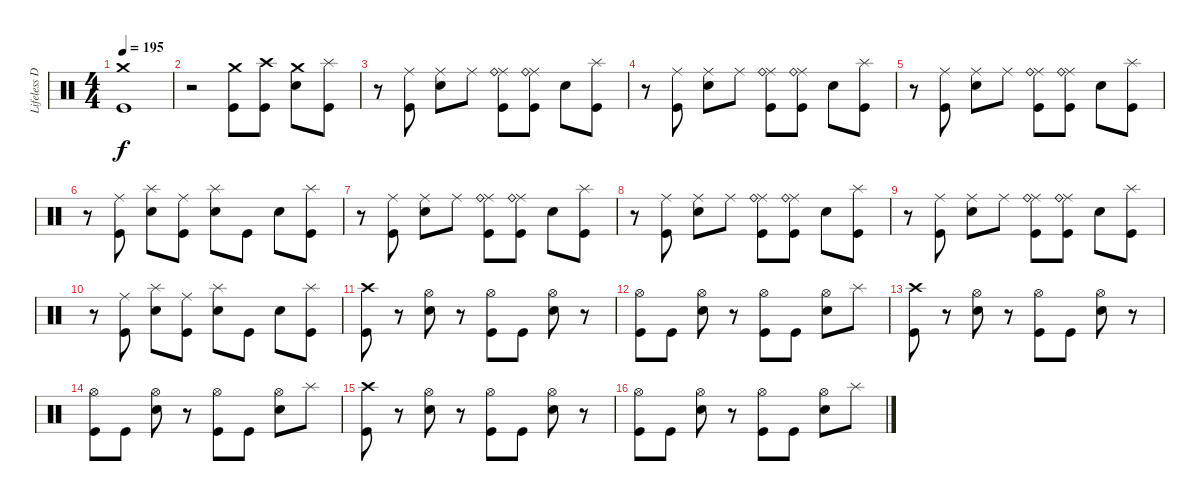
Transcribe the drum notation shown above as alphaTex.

\track ("Lifeless Drums" "Lifeless D") {instrument percussion}
\staff {score}
\articulation defaults
\ts (4 4)
\tempo 195
\clef neutral
\ks c
("Crash medium (hit)" "Kick (hit)").1{dy f} |
r.2 ("Crash medium (hit)" "Kick (hit)").8 ("Crash high (hit)" "Kick (hit)").8 ("Crash medium (hit)" "Electric Snare (hit)").8 ("Splash (hit)" "Kick (hit)").8 |
r.8 ("Ride (middle)" "Kick (hit)").8 ("Ride (middle)" "Electric Snare (hit)").8 "Ride (middle)".8 ("Ride (middle)" "Ride (bell)" "Kick (hit)").8 ("Ride (middle)" "Ride (bell)" "Kick (hit)").8 "Electric Snare (hit)".8 ("Splash (hit)" "Kick (hit)").8 |
r.8 ("Ride (middle)" "Kick (hit)").8 ("Ride (middle)" "Electric Snare (hit)").8 "Ride (middle)".8 ("Ride (middle)" "Ride (bell)" "Kick (hit)").8 ("Ride (middle)" "Ride (bell)" "Kick (hit)").8 "Electric Snare (hit)".8 ("Splash (hit)" "Kick (hit)").8 |
r.8 ("Ride (middle)" "Kick (hit)").8 ("Ride (middle)" "Electric Snare (hit)").8 "Ride (middle)".8 ("Ride (middle)" "Ride (bell)" "Kick (hit)").8 ("Ride (middle)" "Ride (bell)" "Kick (hit)").8 "Electric Snare (hit)".8 ("Splash (hit)" "Kick (hit)").8 |
r.8 ("Ride (middle)" "Kick (hit)").8 ("Splash (hit)" "Electric Snare (hit)").8 ("Ride (middle)" "Kick (hit)").8 ("Splash (hit)" "Electric Snare (hit)").8 "Kick (hit)".8 "Electric Snare (hit)".8 ("Splash (hit)" "Kick (hit)").8 |
r.8 ("Ride (middle)" "Kick (hit)").8 ("Ride (middle)" "Electric Snare (hit)").8 "Ride (middle)".8 ("Ride (middle)" "Ride (bell)" "Kick (hit)").8 ("Ride (middle)" "Ride (bell)" "Kick (hit)").8 "Electric Snare (hit)".8 ("Splash (hit)" "Kick (hit)").8 |
r.8 ("Ride (middle)" "Kick (hit)").8 ("Ride (middle)" "Electric Snare (hit)").8 "Ride (middle)".8 ("Ride (middle)" "Ride (bell)" "Kick (hit)").8 ("Ride (middle)" "Ride (bell)" "Kick (hit)").8 "Electric Snare (hit)".8 ("Splash (hit)" "Kick (hit)").8 |
r.8 ("Ride (middle)" "Kick (hit)").8 ("Ride (middle)" "Electric Snare (hit)").8 "Ride (middle)".8 ("Ride (middle)" "Ride (bell)" "Kick (hit)").8 ("Ride (middle)" "Ride (bell)" "Kick (hit)").8 "Electric Snare (hit)".8 ("Splash (hit)" "Kick (hit)").8 |
r.8 ("Ride (middle)" "Kick (hit)").8 ("Splash (hit)" "Electric Snare (hit)").8 ("Ride (middle)" "Kick (hit)").8 ("Splash (hit)" "Electric Snare (hit)").8 "Kick (hit)".8 "Electric Snare (hit)".8 ("Splash (hit)" "Kick (hit)").8 |
("Crash high (hit)" "Kick (hit)").8 r.8 ("Hi-Hat (open)" "Electric Snare (hit)").8 r.8 ("Hi-Hat (open)" "Kick (hit)").8 "Kick (hit)".8 ("Hi-Hat (open)" "Electric Snare (hit)").8 r.8 |
("Hi-Hat (open)" "Kick (hit)").8 "Kick (hit)".8 ("Hi-Hat (open)" "Electric Snare (hit)").8 r.8 ("Hi-Hat (open)" "Kick (hit)").8 "Kick (hit)".8 ("Hi-Hat (open)" "Electric Snare (hit)").8 "Splash (hit)".8 |
("Crash high (hit)" "Kick (hit)").8 r.8 ("Hi-Hat (open)" "Electric Snare (hit)").8 r.8 ("Hi-Hat (open)" "Kick (hit)").8 "Kick (hit)".8 ("Hi-Hat (open)" "Electric Snare (hit)").8 r.8 |
("Hi-Hat (open)" "Kick (hit)").8 "Kick (hit)".8 ("Hi-Hat (open)" "Electric Snare (hit)").8 r.8 ("Hi-Hat (open)" "Kick (hit)").8 "Kick (hit)".8 ("Hi-Hat (open)" "Electric Snare (hit)").8 "Splash (hit)".8 |
("Crash high (hit)" "Kick (hit)").8 r.8 ("Hi-Hat (open)" "Electric Snare (hit)").8 r.8 ("Hi-Hat (open)" "Kick (hit)").8 "Kick (hit)".8 ("Hi-Hat (open)" "Electric Snare (hit)").8 r.8 |
("Hi-Hat (open)" "Kick (hit)").8 "Kick (hit)".8 ("Hi-Hat (open)" "Electric Snare (hit)").8 r.8 ("Hi-Hat (open)" "Kick (hit)").8 "Kick (hit)".8 ("Hi-Hat (open)" "Electric Snare (hit)").8 "Splash (hit)".8
